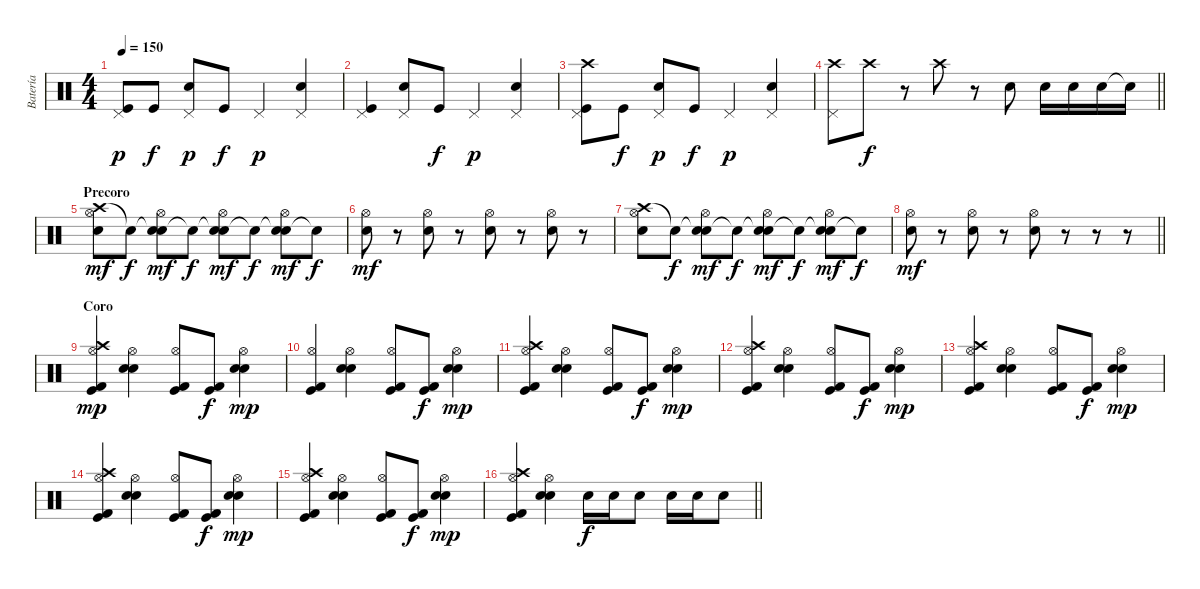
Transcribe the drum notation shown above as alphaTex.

\track ("Batería" "Batería") {instrument percussion}
\staff {score}
\articulation defaults
\ts (4 4)
\tempo 150
\clef neutral
\ks c
("Kick (hit)" "Pedal Hi-Hat (hit)").8{dy p} "Kick (hit)".8{dy f} ("Electric Snare (hit)" "Pedal Hi-Hat (hit)").8{dy p} "Kick (hit)".8{dy f} "Pedal Hi-Hat (hit)".4{dy p} ("Electric Snare (hit)" "Pedal Hi-Hat (hit)").4 |
("Kick (hit)" "Pedal Hi-Hat (hit)").4 ("Snare (hit) 2" "Pedal Hi-Hat (hit)").8 "Kick (hit)".8{dy f} "Pedal Hi-Hat (hit)".4{dy p} ("Electric Snare (hit)" "Pedal Hi-Hat (hit)").4 |
("Kick (hit)" "Crash high (hit)" "Pedal Hi-Hat (hit)").8 "Kick (hit)".8{dy f} ("Electric Snare (hit)" "Pedal Hi-Hat (hit)").8{dy p} "Kick (hit)".8{dy f} "Pedal Hi-Hat (hit)".4{dy p} ("Electric Snare (hit)" "Pedal Hi-Hat (hit)").4 |
\barLineRight lightlight
("Crash high (hit)" "Pedal Hi-Hat (hit)").8 "Crash high (hit)".8{dy f} r.8 "Crash high (hit)".8 r.8 "Electric Snare (hit)".8 "Electric Snare (hit)".16 "Electric Snare (hit)".16 "Electric Snare (hit)".16 "Electric Snare (hit)"{t}.16 |
\section ("" "Precoro")
("Crash high (hit)" "Hi-Hat (open)" "Electric Snare (hit)").8{dy mf} "Snare (hit)"{t}.8{dy f} ("Snare (hit)"{t} "Hi-Hat (open)" "Electric Snare (hit)").8{dy mf} "Snare (hit)"{t}.8{dy f} ("Snare (hit)"{t} "Hi-Hat (open)" "Electric Snare (hit)").8{dy mf} "Snare (hit)"{t}.8{dy f} ("Snare (hit)"{t} "Hi-Hat (open)" "Electric Snare (hit)").8{dy mf} "Snare (hit)"{t}.8{dy f} |
("Hi-Hat (open)" "Electric Snare (hit)").8{dy mf} r.8 ("Hi-Hat (open)" "Electric Snare (hit)").8 r.8 ("Hi-Hat (open)" "Electric Snare (hit)").8 r.8 ("Hi-Hat (open)" "Electric Snare (hit)").8 r.8 |
("Crash high (hit)" "Hi-Hat (open)" "Electric Snare (hit)").8 "Snare (hit)"{t}.8{dy f} ("Snare (hit)"{t} "Hi-Hat (open)" "Electric Snare (hit)").8{dy mf} "Snare (hit)"{t}.8{dy f} ("Snare (hit)"{t} "Hi-Hat (open)" "Electric Snare (hit)").8{dy mf} "Snare (hit)"{t}.8{dy f} ("Snare (hit)"{t} "Hi-Hat (open)" "Electric Snare (hit)").8{dy mf} "Snare (hit)"{t}.8{dy f} |
\barLineRight lightlight
("Hi-Hat (open)" "Electric Snare (hit)").8{dy mf} r.8 ("Hi-Hat (open)" "Electric Snare (hit)").8 r.8 ("Hi-Hat (open)" "Electric Snare (hit)").8 r.8 r.8 r.8 |
\section ("" "Coro")
("Crash high (hit)" "Hi-Hat (open)" "Kick (hit)" "Kick (hit) 2").4{dy mp} ("Hi-Hat (open)" "Snare (hit) 2" "Electric Snare (hit)").4 ("Hi-Hat (open)" "Kick (hit)" "Kick (hit) 2").8 ("Kick (hit) 2" "Kick (hit)").8{dy f} ("Hi-Hat (open)" "Snare (hit) 2" "Electric Snare (hit)").4{dy mp} |
("Hi-Hat (open)" "Kick (hit)" "Kick (hit) 2").4 ("Hi-Hat (open)" "Snare (hit) 2" "Electric Snare (hit)").4 ("Hi-Hat (open)" "Kick (hit)" "Kick (hit) 2").8 ("Kick (hit) 2" "Kick (hit)").8{dy f} ("Hi-Hat (open)" "Snare (hit) 2" "Electric Snare (hit)").4{dy mp} |
("Crash high (hit)" "Hi-Hat (open)" "Kick (hit)" "Kick (hit) 2").4 ("Hi-Hat (open)" "Snare (hit) 2" "Electric Snare (hit)").4 ("Hi-Hat (open)" "Kick (hit)" "Kick (hit) 2").8 ("Kick (hit) 2" "Kick (hit)").8{dy f} ("Hi-Hat (open)" "Snare (hit) 2" "Electric Snare (hit)").4{dy mp} |
("Crash high (hit)" "Hi-Hat (open)" "Kick (hit)" "Kick (hit) 2").4 ("Hi-Hat (open)" "Snare (hit) 2" "Electric Snare (hit)").4 ("Hi-Hat (open)" "Kick (hit)" "Kick (hit) 2").8 ("Kick (hit) 2" "Kick (hit)").8{dy f} ("Hi-Hat (open)" "Snare (hit) 2" "Electric Snare (hit)").4{dy mp} |
("Crash high (hit)" "Hi-Hat (open)" "Kick (hit)" "Kick (hit) 2").4 ("Hi-Hat (open)" "Snare (hit) 2" "Electric Snare (hit)").4 ("Hi-Hat (open)" "Kick (hit)" "Kick (hit) 2").8 ("Kick (hit) 2" "Kick (hit)").8{dy f} ("Hi-Hat (open)" "Snare (hit) 2" "Electric Snare (hit)").4{dy mp} |
("Crash high (hit)" "Hi-Hat (open)" "Kick (hit)" "Kick (hit) 2").4 ("Hi-Hat (open)" "Snare (hit) 2" "Electric Snare (hit)").4 ("Hi-Hat (open)" "Kick (hit)" "Kick (hit) 2").8 ("Kick (hit) 2" "Kick (hit)").8{dy f} ("Hi-Hat (open)" "Snare (hit) 2" "Electric Snare (hit)").4{dy mp} |
("Crash high (hit)" "Hi-Hat (open)" "Kick (hit)" "Kick (hit) 2").4 ("Hi-Hat (open)" "Snare (hit) 2" "Electric Snare (hit)").4 ("Hi-Hat (open)" "Kick (hit)" "Kick (hit) 2").8 ("Kick (hit)" "Kick (hit) 2").8{dy f} ("Hi-Hat (open)" "Snare (hit) 2" "Electric Snare (hit)").4{dy mp} |
\barLineRight lightlight
("Crash high (hit)" "Hi-Hat (open)" "Kick (hit)" "Kick (hit) 2").4 ("Hi-Hat (open)" "Snare (hit) 2" "Electric Snare (hit)").4 "Electric Snare (hit)".16{dy f} "Electric Snare (hit)".16 "Electric Snare (hit)".8 "Electric Snare (hit)".16 "Electric Snare (hit)".16 "Electric Snare (hit)".8
